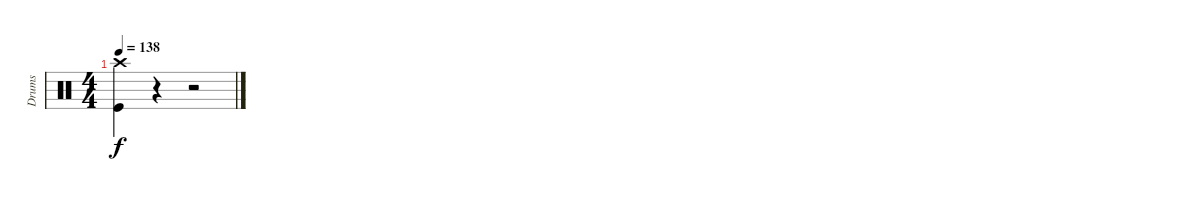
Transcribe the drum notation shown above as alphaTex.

\track ("Drums" "Drums") {instrument percussion}
\staff {score}
\articulation defaults
\ts (4 4)
\tempo 138
\clef neutral
\ks c
("Crash high (hit)" "Kick (hit)").4{dy f} r.4 r.2
